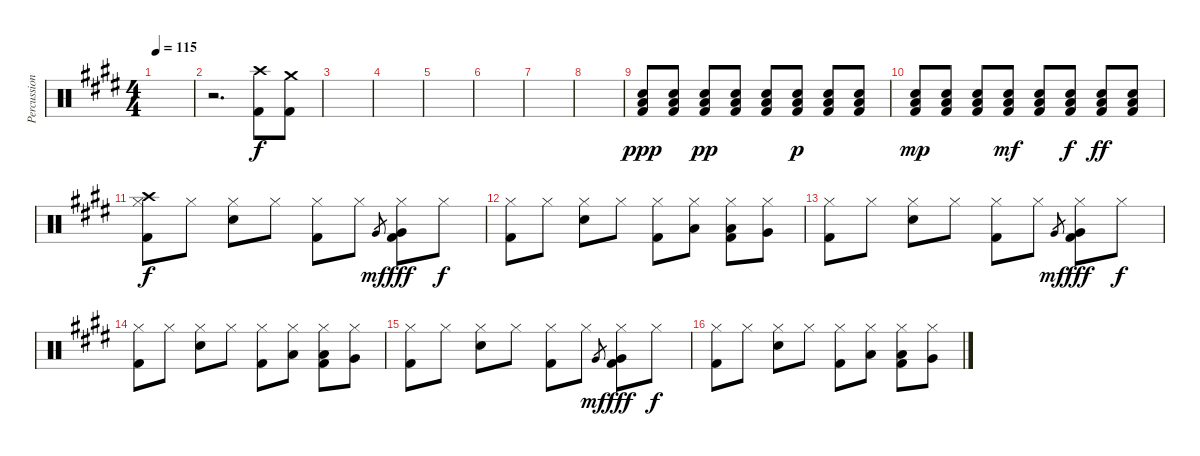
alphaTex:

\track ("Percussion" "Percussion") {instrument percussion}
\staff {score}
\articulation defaults
\ts (4 4)
\tempo 115
\clef neutral
\ks c#minor
|
r.2{d} ("Crash high (hit)" "Kick (hit) 2").8 ("Crash medium (hit)" "Kick (hit) 2").8 |
|
|
|
|
|
|
("Low Floor Tom (hit)" "Electric Snare (hit)" "Kick (hit) 2").8{dy ppp} ("Low Floor Tom (hit)" "Electric Snare (hit)" "Kick (hit) 2").8 ("Low Floor Tom (hit)" "Electric Snare (hit)" "Kick (hit) 2").8{dy pp} ("Low Floor Tom (hit)" "Electric Snare (hit)" "Kick (hit) 2").8 ("Low Floor Tom (hit)" "Electric Snare (hit)" "Kick (hit) 2").8 ("Low Floor Tom (hit)" "Electric Snare (hit)" "Kick (hit) 2").8{dy p} ("Low Floor Tom (hit)" "Electric Snare (hit)" "Kick (hit) 2").8 ("Low Floor Tom (hit)" "Electric Snare (hit)" "Kick (hit) 2").8 |
("Low Floor Tom (hit)" "Electric Snare (hit)" "Kick (hit) 2").8{dy mp} ("Low Floor Tom (hit)" "Electric Snare (hit)" "Kick (hit) 2").8 ("Low Floor Tom (hit)" "Electric Snare (hit)" "Kick (hit) 2").8 ("Low Floor Tom (hit)" "Electric Snare (hit)" "Kick (hit) 2").8{dy mf} ("Low Floor Tom (hit)" "Electric Snare (hit)" "Kick (hit) 2").8 ("Low Floor Tom (hit)" "Electric Snare (hit)" "Kick (hit) 2").8{dy f} ("Low Floor Tom (hit)" "Electric Snare (hit)" "Kick (hit) 2").8{dy ff} ("Low Floor Tom (hit)" "Electric Snare (hit)" "Kick (hit) 2").8 |
("Crash high (hit)" "Hi-Hat (closed)" "Kick (hit) 2").8{dy f} "Hi-Hat (closed)".8 ("Hi-Hat (closed)" "Electric Snare (hit)").8 "Hi-Hat (closed)".8 ("Hi-Hat (closed)" "Kick (hit) 2").8 "Hi-Hat (closed)".8 "Very Low Tom (hit)".8{gr dy mf} ("Hi-Hat (closed)" "Very Low Tom (hit)" "Kick (hit) 2").8{dy fff} "Hi-Hat (closed)".8{dy f} |
("Hi-Hat (closed)" "Kick (hit) 2").8 "Hi-Hat (closed)".8 ("Hi-Hat (closed)" "Electric Snare (hit)").8 "Hi-Hat (closed)".8 ("Hi-Hat (closed)" "Kick (hit) 2").8 ("Hi-Hat (closed)" "Low Tom (hit)").8 ("Hi-Hat (closed)" "Low Floor Tom (hit)" "Kick (hit) 2").8 ("Hi-Hat (closed)" "Very Low Tom (hit)").8 |
("Hi-Hat (closed)" "Kick (hit) 2").8 "Hi-Hat (closed)".8 ("Hi-Hat (closed)" "Electric Snare (hit)").8 "Hi-Hat (closed)".8 ("Hi-Hat (closed)" "Kick (hit) 2").8 "Hi-Hat (closed)".8 "Very Low Tom (hit)".8{gr dy mf} ("Hi-Hat (closed)" "Very Low Tom (hit)" "Kick (hit) 2").8{dy fff} "Hi-Hat (closed)".8{dy f} |
("Hi-Hat (closed)" "Kick (hit) 2").8 "Hi-Hat (closed)".8 ("Hi-Hat (closed)" "Electric Snare (hit)").8 "Hi-Hat (closed)".8 ("Hi-Hat (closed)" "Kick (hit) 2").8 ("Hi-Hat (closed)" "Low Tom (hit)").8 ("Hi-Hat (closed)" "Low Floor Tom (hit)" "Kick (hit) 2").8 ("Hi-Hat (closed)" "Very Low Tom (hit)").8 |
("Hi-Hat (closed)" "Kick (hit) 2").8 "Hi-Hat (closed)".8 ("Hi-Hat (closed)" "Electric Snare (hit)").8 "Hi-Hat (closed)".8 ("Hi-Hat (closed)" "Kick (hit) 2").8 "Hi-Hat (closed)".8 "Very Low Tom (hit)".8{gr dy mf} ("Hi-Hat (closed)" "Very Low Tom (hit)" "Kick (hit) 2").8{dy fff} "Hi-Hat (closed)".8{dy f} |
("Hi-Hat (closed)" "Kick (hit) 2").8 "Hi-Hat (closed)".8 ("Hi-Hat (closed)" "Electric Snare (hit)").8 "Hi-Hat (closed)".8 ("Hi-Hat (closed)" "Kick (hit) 2").8 ("Hi-Hat (closed)" "Low Tom (hit)").8 ("Hi-Hat (closed)" "Low Floor Tom (hit)" "Kick (hit) 2").8 ("Hi-Hat (closed)" "Very Low Tom (hit)").8
